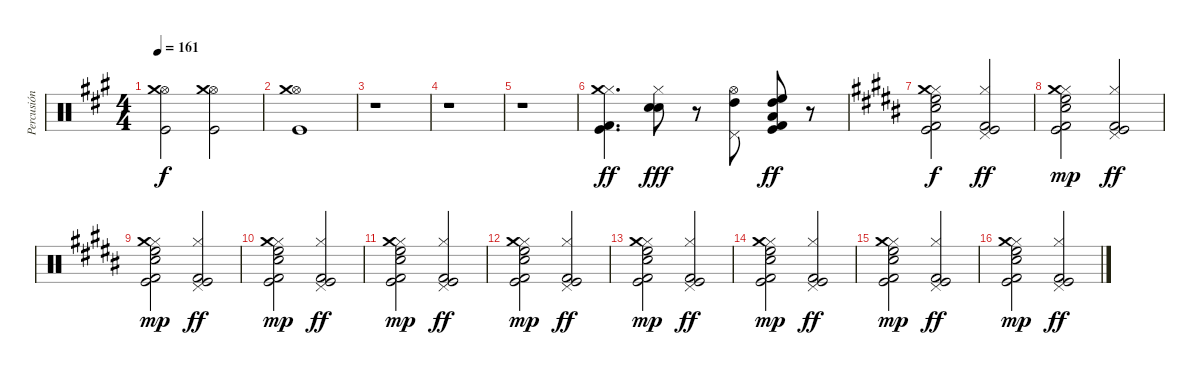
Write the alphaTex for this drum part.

\track ("Percusión" "Percusión") {instrument percussion}
\staff {score}
\articulation defaults
\ts (4 4)
\tempo 161
\clef neutral
\ks a
("Hi-Hat (open)" "Crash medium (hit)" "Kick (hit)").2{dy f} ("Hi-Hat (open)" "Crash medium (hit)" "Kick (hit)").2 |
("Hi-Hat (open)" "Crash medium (hit)" "Kick (hit)").1 |
r.1 |
r.1 |
r.1 |
("Hi-Hat (closed)" "Crash medium (hit)" "Kick (hit)" "Kick (hit) 2").4{d dy ff} ("Hi-Hat (closed)" "Electric Snare (hit)" "Snare (hit) 2").8{dy fff} r.8 ("Hi-Hat (open)" "Pedal Hi-Hat (hit)" "High Tom (hit)").8 ("High Floor Tom (hit)" "High Tom (hit)" "Low Tom (hit)" "Kick (hit)" "Kick (hit) 2").8{dy ff} r.8 |
\ks b
("Hi-Hat (closed)" "High Floor Tom (hit)" "Snare (hit) 2" "Crash medium (hit)" "Kick (hit)" "Kick (hit) 2").2{dy f} ("Hi-Hat (closed)" "Pedal Hi-Hat (hit)" "Kick (hit)" "Kick (hit) 2").2{dy ff} |
("Hi-Hat (closed)" "High Floor Tom (hit)" "Snare (hit) 2" "Crash medium (hit)" "Kick (hit)" "Kick (hit) 2").2{dy mp} ("Hi-Hat (closed)" "Pedal Hi-Hat (hit)" "Kick (hit)" "Kick (hit) 2").2{dy ff} |
("Hi-Hat (closed)" "High Floor Tom (hit)" "Snare (hit) 2" "Crash medium (hit)" "Kick (hit)" "Kick (hit) 2").2{dy mp} ("Hi-Hat (closed)" "Pedal Hi-Hat (hit)" "Kick (hit)" "Kick (hit) 2").2{dy ff} |
("Hi-Hat (closed)" "High Floor Tom (hit)" "Snare (hit) 2" "Crash medium (hit)" "Kick (hit)" "Kick (hit) 2").2{dy mp} ("Hi-Hat (closed)" "Pedal Hi-Hat (hit)" "Kick (hit)" "Kick (hit) 2").2{dy ff} |
("Hi-Hat (closed)" "High Floor Tom (hit)" "Snare (hit) 2" "Crash medium (hit)" "Kick (hit)" "Kick (hit) 2").2{dy mp} ("Hi-Hat (closed)" "Pedal Hi-Hat (hit)" "Kick (hit)" "Kick (hit) 2").2{dy ff} |
("Hi-Hat (closed)" "High Floor Tom (hit)" "Snare (hit) 2" "Crash medium (hit)" "Kick (hit)" "Kick (hit) 2").2{dy mp} ("Hi-Hat (closed)" "Pedal Hi-Hat (hit)" "Kick (hit)" "Kick (hit) 2").2{dy ff} |
("Hi-Hat (closed)" "High Floor Tom (hit)" "Snare (hit) 2" "Crash medium (hit)" "Kick (hit)" "Kick (hit) 2").2{dy mp} ("Hi-Hat (closed)" "Pedal Hi-Hat (hit)" "Kick (hit)" "Kick (hit) 2").2{dy ff} |
("Hi-Hat (closed)" "High Floor Tom (hit)" "Snare (hit) 2" "Crash medium (hit)" "Kick (hit)" "Kick (hit) 2").2{dy mp} ("Hi-Hat (closed)" "Pedal Hi-Hat (hit)" "Kick (hit)" "Kick (hit) 2").2{dy ff} |
("Hi-Hat (closed)" "High Floor Tom (hit)" "Snare (hit) 2" "Crash medium (hit)" "Kick (hit)" "Kick (hit) 2").2{dy mp} ("Hi-Hat (closed)" "Pedal Hi-Hat (hit)" "Kick (hit)" "Kick (hit) 2").2{dy ff} |
("Hi-Hat (closed)" "High Floor Tom (hit)" "Snare (hit) 2" "Crash medium (hit)" "Kick (hit)" "Kick (hit) 2").2{dy mp} ("Hi-Hat (closed)" "Pedal Hi-Hat (hit)" "Kick (hit)" "Kick (hit) 2").2{dy ff}
